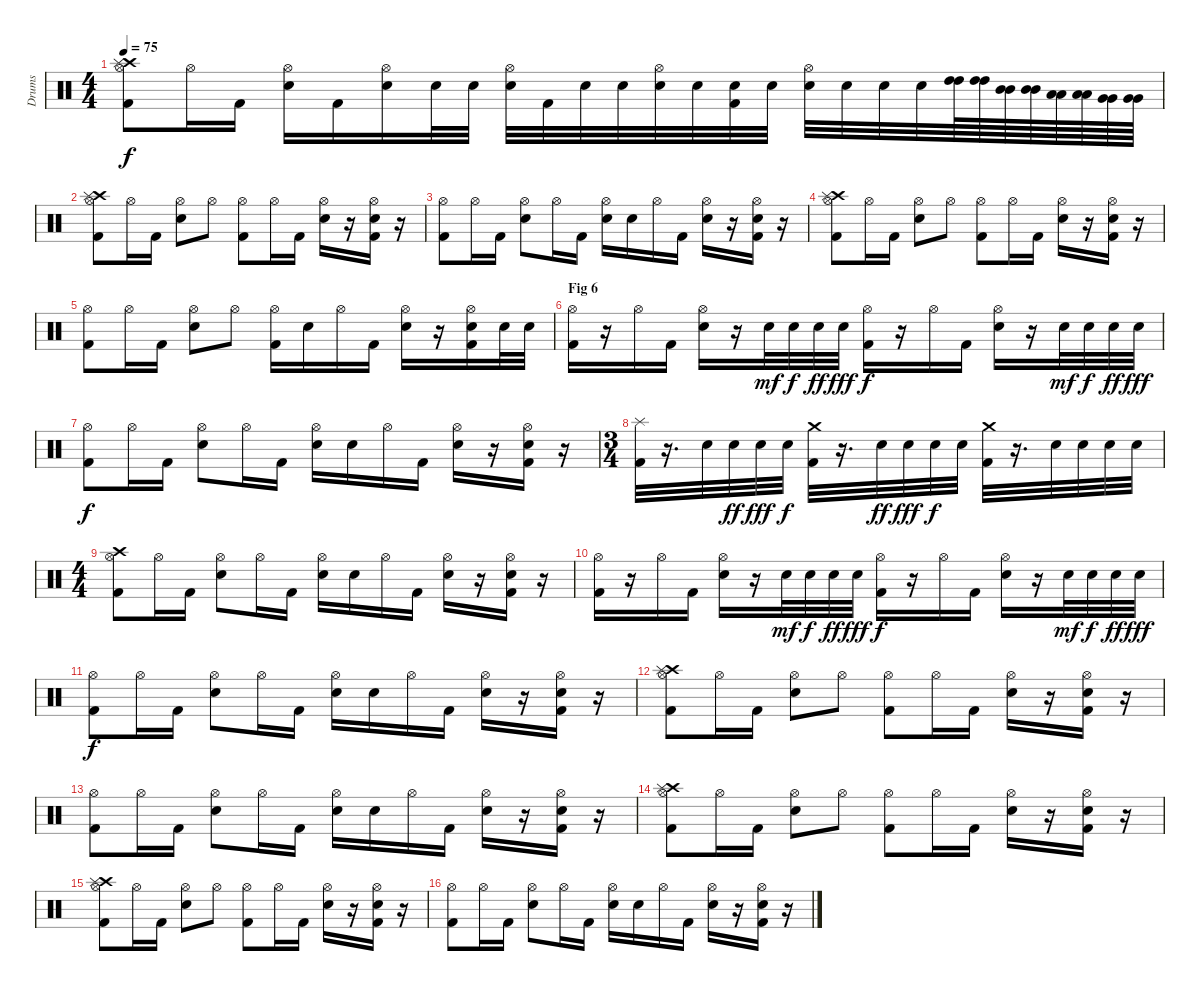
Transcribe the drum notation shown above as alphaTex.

\track ("Drums" "Drums") {instrument percussion}
\staff {score}
\articulation defaults
\ts (4 4)
\tempo 75
\clef neutral
\ks c
("Hi-Hat (open)" "Kick (hit) 2" "Crash high (hit)" "Splash (hit)").8{dy f} "Hi-Hat (open)".16 "Kick (hit) 2".16 ("Hi-Hat (open)" "Snare (hit) 2").16 "Kick (hit) 2".16 ("Hi-Hat (open)" "Snare (hit) 2").16 "Snare (hit) 2".32 "Snare (hit) 2".32 ("Hi-Hat (open)" "Snare (hit) 2").32 "Kick (hit) 2".32 "Snare (hit) 2".32 "Snare (hit) 2".32 ("Hi-Hat (open)" "Snare (hit) 2").32 "Snare (hit) 2".32 ("Kick (hit) 2" "Snare (hit) 2").32 "Snare (hit) 2".32 ("Hi-Hat (open)" "Snare (hit) 2").32 "Snare (hit) 2".32 "Snare (hit) 2".32 "Snare (hit) 2".32 ("High Tom (hit)" "High Tom (hit)").64 ("High Tom (hit)" "High Tom (hit)").64 ("Mid Tom (hit)" "Mid Tom (hit)").64 ("Mid Tom (hit)" "Mid Tom (hit)").64 ("Low Tom (hit)" "Low Tom (hit)").64 ("Low Tom (hit)" "Low Tom (hit)").64 ("Very Low Tom (hit)" "Very Low Tom (hit)").64 ("Very Low Tom (hit)" "Very Low Tom (hit)").64 |
("Hi-Hat (open)" "Kick (hit) 2" "Crash high (hit)" "Splash (hit)").8 "Hi-Hat (open)".16 "Kick (hit) 2".16 ("Hi-Hat (open)" "Snare (hit) 2").8 "Hi-Hat (open)".8 ("Hi-Hat (open)" "Kick (hit) 2").8 "Hi-Hat (open)".16 "Kick (hit) 2".16 ("Hi-Hat (open)" "Snare (hit) 2").16 r.16 ("Hi-Hat (open)" "Kick (hit) 2" "Snare (hit) 2").16 r.16 |
("Hi-Hat (open)" "Kick (hit) 2").8 "Hi-Hat (open)".16 "Kick (hit) 2".16 ("Hi-Hat (open)" "Snare (hit) 2").8 "Hi-Hat (open)".16 "Kick (hit) 2".16 ("Hi-Hat (open)" "Snare (hit) 2").16 "Snare (hit) 2".16 "Hi-Hat (open)".16 "Kick (hit) 2".16 ("Hi-Hat (open)" "Snare (hit) 2").16 r.16 ("Hi-Hat (open)" "Kick (hit) 2" "Snare (hit) 2").16 r.16 |
("Hi-Hat (open)" "Kick (hit) 2" "Crash high (hit)" "Splash (hit)").8 "Hi-Hat (open)".16 "Kick (hit) 2".16 ("Hi-Hat (open)" "Snare (hit) 2").8 "Hi-Hat (open)".8 ("Hi-Hat (open)" "Kick (hit) 2").8 "Hi-Hat (open)".16 "Kick (hit) 2".16 ("Hi-Hat (open)" "Snare (hit) 2").16 r.16 ("Hi-Hat (open)" "Kick (hit) 2" "Snare (hit) 2").16 r.16 |
("Hi-Hat (open)" "Kick (hit) 2").8 "Hi-Hat (open)".16 "Kick (hit) 2".16 ("Hi-Hat (open)" "Snare (hit) 2").8 "Hi-Hat (open)".8 ("Hi-Hat (open)" "Kick (hit) 2").16 "Snare (hit) 2".16 "Hi-Hat (open)".16 "Kick (hit) 2".16 ("Hi-Hat (open)" "Snare (hit) 2").16 r.16 ("Hi-Hat (open)" "Kick (hit) 2" "Snare (hit) 2").16 "Snare (hit) 2".32 "Snare (hit) 2".32 |
\section ("" "Fig 6")
("Hi-Hat (open)" "Kick (hit) 2").16 r.16 "Hi-Hat (open)".16 "Kick (hit) 2".16 ("Hi-Hat (open)" "Snare (hit) 2").16 r.16 "Snare (hit) 2".32{dy mf} "Snare (hit) 2".32{dy f} "Snare (hit) 2".32{dy ff} "Snare (hit) 2".32{dy fff} ("Hi-Hat (open)" "Kick (hit) 2").16{dy f} r.16 "Hi-Hat (open)".16 "Kick (hit) 2".16 ("Hi-Hat (open)" "Snare (hit) 2").16 r.16 "Snare (hit) 2".32{dy mf} "Snare (hit) 2".32{dy f} "Snare (hit) 2".32{dy ff} "Snare (hit) 2".32{dy fff} |
("Hi-Hat (open)" "Kick (hit) 2").8{dy f} "Hi-Hat (open)".16 "Kick (hit) 2".16 ("Hi-Hat (open)" "Snare (hit) 2").8 "Hi-Hat (open)".16 "Kick (hit) 2".16 ("Hi-Hat (open)" "Snare (hit) 2").16 "Snare (hit) 2".16 "Hi-Hat (open)".16 "Kick (hit) 2".16 ("Hi-Hat (open)" "Snare (hit) 2").16 r.16 ("Hi-Hat (open)" "Kick (hit) 2" "Snare (hit) 2").16 r.16 |
\ts (3 4)
("Splash (hit)" "Kick (hit) 2").32 r.16{d} "Snare (hit) 2".32 "Snare (hit) 2".32{dy ff} "Snare (hit) 2".32{dy fff} "Snare (hit) 2".32{dy f} ("Crash medium (hit)" "Kick (hit) 2").32 r.16{d} "Snare (hit) 2".32{dy ff} "Snare (hit) 2".32{dy fff} "Snare (hit) 2".32{dy f} "Snare (hit) 2".32 ("Crash medium (hit)" "Kick (hit) 2").32 r.16{d} "Snare (hit) 2".32 "Snare (hit) 2".32 "Snare (hit) 2".32 "Snare (hit) 2".32 |
\ts (4 4)
("Hi-Hat (open)" "Kick (hit) 2" "Crash high (hit)").8 "Hi-Hat (open)".16 "Kick (hit) 2".16 ("Hi-Hat (open)" "Snare (hit) 2").8 "Hi-Hat (open)".16 "Kick (hit) 2".16 ("Hi-Hat (open)" "Snare (hit) 2").16 "Snare (hit) 2".16 "Hi-Hat (open)".16 "Kick (hit) 2".16 ("Hi-Hat (open)" "Snare (hit) 2").16 r.16 ("Hi-Hat (open)" "Kick (hit) 2" "Snare (hit) 2").16 r.16 |
("Hi-Hat (open)" "Kick (hit) 2").16 r.16 "Hi-Hat (open)".16 "Kick (hit) 2".16 ("Hi-Hat (open)" "Snare (hit) 2").16 r.16 "Snare (hit) 2".32{dy mf} "Snare (hit) 2".32{dy f} "Snare (hit) 2".32{dy ff} "Snare (hit) 2".32{dy fff} ("Hi-Hat (open)" "Kick (hit) 2").16{dy f} r.16 "Hi-Hat (open)".16 "Kick (hit) 2".16 ("Hi-Hat (open)" "Snare (hit) 2").16 r.16 "Snare (hit) 2".32{dy mf} "Snare (hit) 2".32{dy f} "Snare (hit) 2".32{dy ff} "Snare (hit) 2".32{dy fff} |
("Hi-Hat (open)" "Kick (hit) 2").8{dy f} "Hi-Hat (open)".16 "Kick (hit) 2".16 ("Hi-Hat (open)" "Snare (hit) 2").8 "Hi-Hat (open)".16 "Kick (hit) 2".16 ("Hi-Hat (open)" "Snare (hit) 2").16 "Snare (hit) 2".16 "Hi-Hat (open)".16 "Kick (hit) 2".16 ("Hi-Hat (open)" "Snare (hit) 2").16 r.16 ("Hi-Hat (open)" "Kick (hit) 2" "Snare (hit) 2").16 r.16 |
("Hi-Hat (open)" "Kick (hit) 2" "Crash high (hit)" "Splash (hit)").8 "Hi-Hat (open)".16 "Kick (hit) 2".16 ("Hi-Hat (open)" "Snare (hit) 2").8 "Hi-Hat (open)".8 ("Hi-Hat (open)" "Kick (hit) 2").8 "Hi-Hat (open)".16 "Kick (hit) 2".16 ("Hi-Hat (open)" "Snare (hit) 2").16 r.16 ("Hi-Hat (open)" "Kick (hit) 2" "Snare (hit) 2").16 r.16 |
("Hi-Hat (open)" "Kick (hit) 2").8 "Hi-Hat (open)".16 "Kick (hit) 2".16 ("Hi-Hat (open)" "Snare (hit) 2").8 "Hi-Hat (open)".16 "Kick (hit) 2".16 ("Hi-Hat (open)" "Snare (hit) 2").16 "Snare (hit) 2".16 "Hi-Hat (open)".16 "Kick (hit) 2".16 ("Hi-Hat (open)" "Snare (hit) 2").16 r.16 ("Hi-Hat (open)" "Kick (hit) 2" "Snare (hit) 2").16 r.16 |
("Hi-Hat (open)" "Kick (hit) 2" "Crash high (hit)" "Splash (hit)").8 "Hi-Hat (open)".16 "Kick (hit) 2".16 ("Hi-Hat (open)" "Snare (hit) 2").8 "Hi-Hat (open)".8 ("Hi-Hat (open)" "Kick (hit) 2").8 "Hi-Hat (open)".16 "Kick (hit) 2".16 ("Hi-Hat (open)" "Snare (hit) 2").16 r.16 ("Hi-Hat (open)" "Kick (hit) 2" "Snare (hit) 2").16 r.16 |
("Hi-Hat (open)" "Kick (hit) 2" "Crash high (hit)" "Splash (hit)").8 "Hi-Hat (open)".16 "Kick (hit) 2".16 ("Hi-Hat (open)" "Snare (hit) 2").8 "Hi-Hat (open)".8 ("Hi-Hat (open)" "Kick (hit) 2").8 "Hi-Hat (open)".16 "Kick (hit) 2".16 ("Hi-Hat (open)" "Snare (hit) 2").16 r.16 ("Hi-Hat (open)" "Kick (hit) 2" "Snare (hit) 2").16 r.16 |
("Hi-Hat (open)" "Kick (hit) 2").8 "Hi-Hat (open)".16 "Kick (hit) 2".16 ("Hi-Hat (open)" "Snare (hit) 2").8 "Hi-Hat (open)".16 "Kick (hit) 2".16 ("Hi-Hat (open)" "Snare (hit) 2").16 "Snare (hit) 2".16 "Hi-Hat (open)".16 "Kick (hit) 2".16 ("Hi-Hat (open)" "Snare (hit) 2").16 r.16 ("Hi-Hat (open)" "Kick (hit) 2" "Snare (hit) 2").16 r.16
